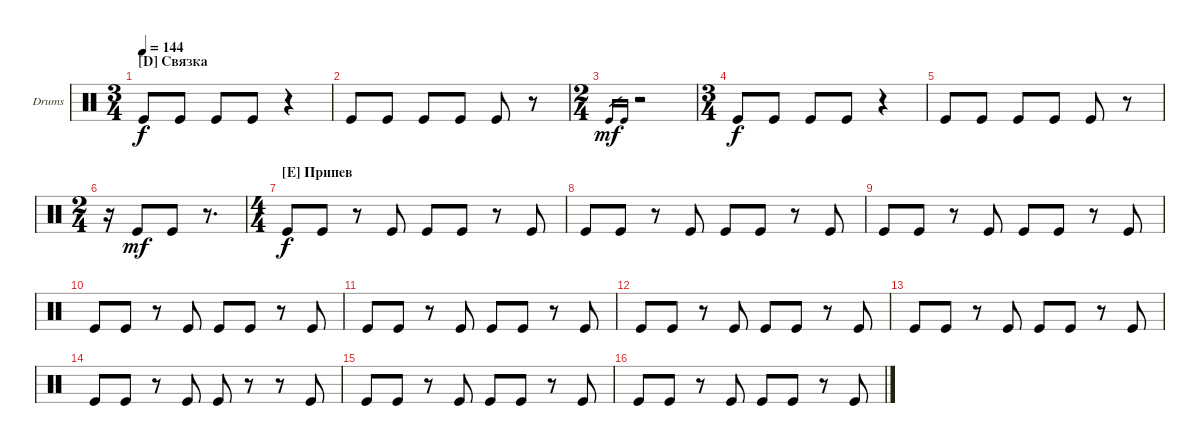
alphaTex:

\defaultSystemsLayout 4
\bracketExtendMode groupsimilarinstruments
\firstSystemTrackNameOrientation horizontal
\otherSystemsTrackNameOrientation horizontal
\track ("Kick" "Drums") {instrument percussion}
\staff {score}
\articulation defaults
\ts (3 4)
\section ("D" "Связка")
\tempo 144
\clef neutral
\ks c "Kick (hit)".8{dy f} "Kick (hit)".8 "Kick (hit)".8 "Kick (hit)".8
r.4 |
"Kick (hit)".8 "Kick (hit)".8 "Kick (hit)".8 "Kick (hit)".8 "Kick (hit)".8 r.8 |
\ts (2 4)
"Kick (hit)".16{gr dy mf} "Kick (hit)".16{gr} r.2 |
\ts (3 4)
"Kick (hit)".8{dy f} "Kick (hit)".8 "Kick (hit)".8 "Kick (hit)".8 r.4 |
"Kick (hit)".8 "Kick (hit)".8 "Kick (hit)".8 "Kick (hit)".8 "Kick (hit)".8 r.8 |
\ts (2 4)
r.16 "Kick (hit)".8{dy mf} "Kick (hit)".8 r.8{d} |
\ts (4 4)
\section ("E" "Припев")
"Kick (hit)".8{dy f} "Kick (hit)".8 r.8 "Kick (hit)".8 "Kick (hit)".8 "Kick (hit)".8 r.8 "Kick (hit)".8 |
"Kick (hit)".8 "Kick (hit)".8 r.8 "Kick (hit)".8 "Kick (hit)".8 "Kick (hit)".8 r.8 "Kick (hit)".8 |
"Kick (hit)".8 "Kick (hit)".8 r.8 "Kick (hit)".8 "Kick (hit)".8 "Kick (hit)".8 r.8 "Kick (hit)".8 |
"Kick (hit)".8 "Kick (hit)".8 r.8 "Kick (hit)".8 "Kick (hit)".8 "Kick (hit)".8 r.8 "Kick (hit)".8 |
"Kick (hit)".8 "Kick (hit)".8 r.8 "Kick (hit)".8 "Kick (hit)".8 "Kick (hit)".8 r.8 "Kick (hit)".8 |
"Kick (hit)".8 "Kick (hit)".8 r.8 "Kick (hit)".8 "Kick (hit)".8 "Kick (hit)".8 r.8 "Kick (hit)".8 |
"Kick (hit)".8 "Kick (hit)".8 r.8 "Kick (hit)".8 "Kick (hit)".8 "Kick (hit)".8 r.8 "Kick (hit)".8 |
"Kick (hit)".8 "Kick (hit)".8 r.8 "Kick (hit)".8 "Kick (hit)".8 r.8 r.8 "Kick (hit)".8 |
"Kick (hit)".8 "Kick (hit)".8 r.8 "Kick (hit)".8 "Kick (hit)".8 "Kick (hit)".8 r.8 "Kick (hit)".8 |
"Kick (hit)".8 "Kick (hit)".8 r.8 "Kick (hit)".8 "Kick (hit)".8 "Kick (hit)".8 r.8 "Kick (hit)".8
